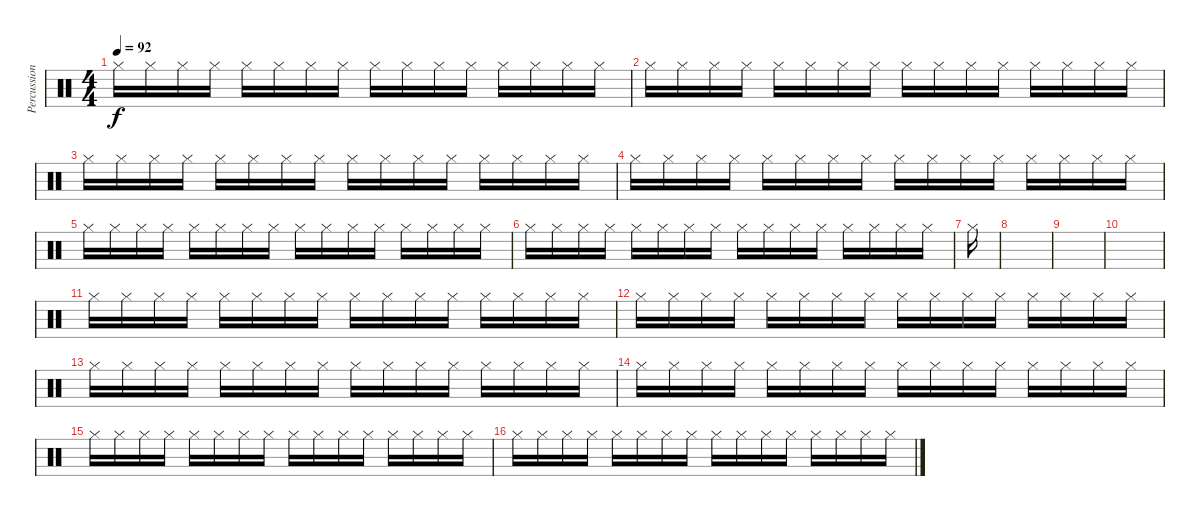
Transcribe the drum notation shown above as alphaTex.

\track ("Percussion" "Percussion") {instrument percussion}
\staff {score}
\articulation defaults
\ts (4 4)
\tempo 92
\clef neutral
\ks c "Hi-Hat (closed)".16{dy f} "Hi-Hat (closed)".16 "Hi-Hat (closed)".16 "Hi-Hat (closed)".16 "Hi-Hat (closed)".16 "Hi-Hat (closed)".16 "Hi-Hat (closed)".16 "Hi-Hat (closed)".16 "Hi-Hat (closed)".16 "Hi-Hat (closed)".16 "Hi-Hat (closed)".16 "Hi-Hat (closed)".16 "Hi-Hat (closed)".16 "Hi-Hat (closed)".16 "Hi-Hat (closed)".16 "Hi-Hat (closed)".16
|
"Hi-Hat (closed)".16 "Hi-Hat (closed)".16 "Hi-Hat (closed)".16 "Hi-Hat (closed)".16 "Hi-Hat (closed)".16 "Hi-Hat (closed)".16 "Hi-Hat (closed)".16 "Hi-Hat (closed)".16 "Hi-Hat (closed)".16 "Hi-Hat (closed)".16 "Hi-Hat (closed)".16 "Hi-Hat (closed)".16 "Hi-Hat (closed)".16 "Hi-Hat (closed)".16 "Hi-Hat (closed)".16 "Hi-Hat (closed)".16 |
"Hi-Hat (closed)".16 "Hi-Hat (closed)".16 "Hi-Hat (closed)".16 "Hi-Hat (closed)".16 "Hi-Hat (closed)".16 "Hi-Hat (closed)".16 "Hi-Hat (closed)".16 "Hi-Hat (closed)".16 "Hi-Hat (closed)".16 "Hi-Hat (closed)".16 "Hi-Hat (closed)".16 "Hi-Hat (closed)".16 "Hi-Hat (closed)".16 "Hi-Hat (closed)".16 "Hi-Hat (closed)".16 "Hi-Hat (closed)".16 |
"Hi-Hat (closed)".16 "Hi-Hat (closed)".16 "Hi-Hat (closed)".16 "Hi-Hat (closed)".16 "Hi-Hat (closed)".16 "Hi-Hat (closed)".16 "Hi-Hat (closed)".16 "Hi-Hat (closed)".16 "Hi-Hat (closed)".16 "Hi-Hat (closed)".16 "Hi-Hat (closed)".16 "Hi-Hat (closed)".16 "Hi-Hat (closed)".16 "Hi-Hat (closed)".16 "Hi-Hat (closed)".16 "Hi-Hat (closed)".16 |
"Hi-Hat (closed)".16 "Hi-Hat (closed)".16 "Hi-Hat (closed)".16 "Hi-Hat (closed)".16 "Hi-Hat (closed)".16 "Hi-Hat (closed)".16 "Hi-Hat (closed)".16 "Hi-Hat (closed)".16 "Hi-Hat (closed)".16 "Hi-Hat (closed)".16 "Hi-Hat (closed)".16 "Hi-Hat (closed)".16 "Hi-Hat (closed)".16 "Hi-Hat (closed)".16 "Hi-Hat (closed)".16 "Hi-Hat (closed)".16 |
"Hi-Hat (closed)".16 "Hi-Hat (closed)".16 "Hi-Hat (closed)".16 "Hi-Hat (closed)".16 "Hi-Hat (closed)".16 "Hi-Hat (closed)".16 "Hi-Hat (closed)".16 "Hi-Hat (closed)".16 "Hi-Hat (closed)".16 "Hi-Hat (closed)".16 "Hi-Hat (closed)".16 "Hi-Hat (closed)".16 "Hi-Hat (closed)".16 "Hi-Hat (closed)".16 "Hi-Hat (closed)".16 "Hi-Hat (closed)".16 |
"Hi-Hat (closed)".16 |
|
|
|
"Hi-Hat (closed)".16 "Hi-Hat (closed)".16 "Hi-Hat (closed)".16 "Hi-Hat (closed)".16 "Hi-Hat (closed)".16 "Hi-Hat (closed)".16 "Hi-Hat (closed)".16 "Hi-Hat (closed)".16 "Hi-Hat (closed)".16 "Hi-Hat (closed)".16 "Hi-Hat (closed)".16 "Hi-Hat (closed)".16 "Hi-Hat (closed)".16 "Hi-Hat (closed)".16 "Hi-Hat (closed)".16 "Hi-Hat (closed)".16 |
"Hi-Hat (closed)".16 "Hi-Hat (closed)".16 "Hi-Hat (closed)".16 "Hi-Hat (closed)".16 "Hi-Hat (closed)".16 "Hi-Hat (closed)".16 "Hi-Hat (closed)".16 "Hi-Hat (closed)".16 "Hi-Hat (closed)".16 "Hi-Hat (closed)".16 "Hi-Hat (closed)".16 "Hi-Hat (closed)".16 "Hi-Hat (closed)".16 "Hi-Hat (closed)".16 "Hi-Hat (closed)".16 "Hi-Hat (closed)".16 |
"Hi-Hat (closed)".16 "Hi-Hat (closed)".16 "Hi-Hat (closed)".16 "Hi-Hat (closed)".16 "Hi-Hat (closed)".16 "Hi-Hat (closed)".16 "Hi-Hat (closed)".16 "Hi-Hat (closed)".16 "Hi-Hat (closed)".16 "Hi-Hat (closed)".16 "Hi-Hat (closed)".16 "Hi-Hat (closed)".16 "Hi-Hat (closed)".16 "Hi-Hat (closed)".16 "Hi-Hat (closed)".16 "Hi-Hat (closed)".16 |
"Hi-Hat (closed)".16 "Hi-Hat (closed)".16 "Hi-Hat (closed)".16 "Hi-Hat (closed)".16 "Hi-Hat (closed)".16 "Hi-Hat (closed)".16 "Hi-Hat (closed)".16 "Hi-Hat (closed)".16 "Hi-Hat (closed)".16 "Hi-Hat (closed)".16 "Hi-Hat (closed)".16 "Hi-Hat (closed)".16 "Hi-Hat (closed)".16 "Hi-Hat (closed)".16 "Hi-Hat (closed)".16 "Hi-Hat (closed)".16 |
"Hi-Hat (closed)".16 "Hi-Hat (closed)".16 "Hi-Hat (closed)".16 "Hi-Hat (closed)".16 "Hi-Hat (closed)".16 "Hi-Hat (closed)".16 "Hi-Hat (closed)".16 "Hi-Hat (closed)".16 "Hi-Hat (closed)".16 "Hi-Hat (closed)".16 "Hi-Hat (closed)".16 "Hi-Hat (closed)".16 "Hi-Hat (closed)".16 "Hi-Hat (closed)".16 "Hi-Hat (closed)".16 "Hi-Hat (closed)".16 |
"Hi-Hat (closed)".16 "Hi-Hat (closed)".16 "Hi-Hat (closed)".16 "Hi-Hat (closed)".16 "Hi-Hat (closed)".16 "Hi-Hat (closed)".16 "Hi-Hat (closed)".16 "Hi-Hat (closed)".16 "Hi-Hat (closed)".16 "Hi-Hat (closed)".16 "Hi-Hat (closed)".16 "Hi-Hat (closed)".16 "Hi-Hat (closed)".16 "Hi-Hat (closed)".16 "Hi-Hat (closed)".16 "Hi-Hat (closed)".16
